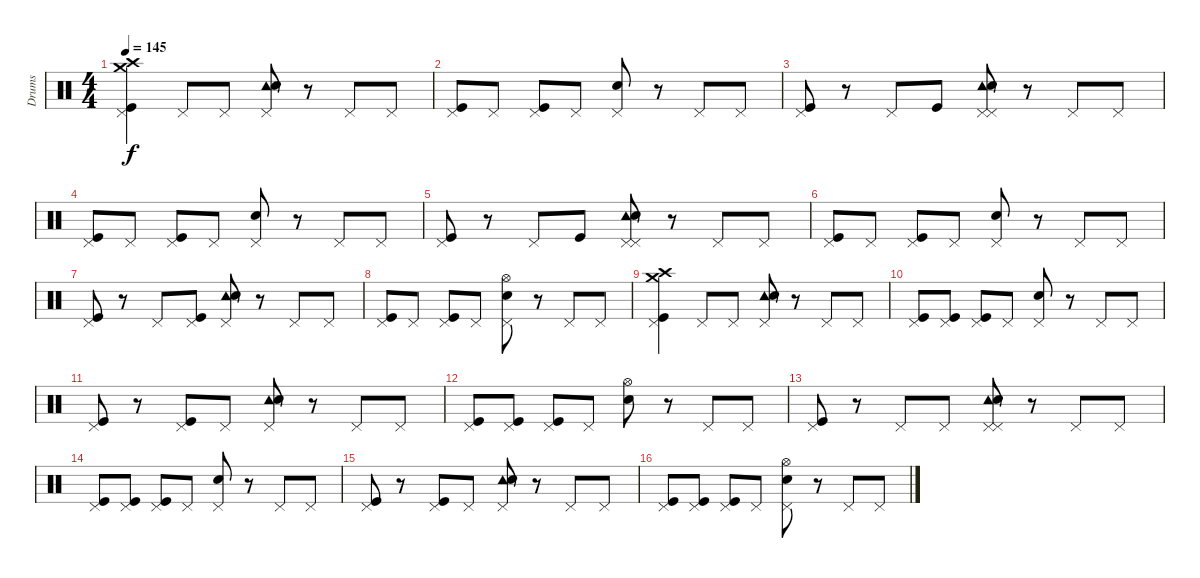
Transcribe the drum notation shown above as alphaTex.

\track ("Drums" "Drums") {instrument percussion}
\staff {score}
\articulation defaults
\ts (4 4)
\tempo 145
\clef neutral
\ks c
("Crash high (hit)" "Pedal Hi-Hat (hit)" "Crash medium (hit)" "Kick (hit)").4{dy f} "Pedal Hi-Hat (hit)".8 "Pedal Hi-Hat (hit)".8 ("Pedal Hi-Hat (hit)" "Tambourine (hit)" "Electric Snare (hit)").8 r.8 "Pedal Hi-Hat (hit)".8 "Pedal Hi-Hat (hit)".8 |
("Kick (hit)" "Pedal Hi-Hat (hit)").8 "Pedal Hi-Hat (hit)".8 ("Pedal Hi-Hat (hit)" "Kick (hit)").8 "Pedal Hi-Hat (hit)".8 ("Pedal Hi-Hat (hit)" "Electric Snare (hit)").8 r.8 "Pedal Hi-Hat (hit)".8 "Pedal Hi-Hat (hit)".8 |
("Pedal Hi-Hat (hit)" "Kick (hit)").8 r.8 "Pedal Hi-Hat (hit)".8 "Kick (hit)".8 ("Pedal Hi-Hat (hit)" "Pedal Hi-Hat (hit)" "Tambourine (hit)" "Electric Snare (hit)").8 r.8 "Pedal Hi-Hat (hit)".8 "Pedal Hi-Hat (hit)".8 |
("Kick (hit)" "Pedal Hi-Hat (hit)").8 "Pedal Hi-Hat (hit)".8 ("Pedal Hi-Hat (hit)" "Kick (hit)").8 "Pedal Hi-Hat (hit)".8 ("Pedal Hi-Hat (hit)" "Electric Snare (hit)").8 r.8 "Pedal Hi-Hat (hit)".8 "Pedal Hi-Hat (hit)".8 |
("Pedal Hi-Hat (hit)" "Kick (hit)").8 r.8 "Pedal Hi-Hat (hit)".8 "Kick (hit)".8 ("Pedal Hi-Hat (hit)" "Pedal Hi-Hat (hit)" "Tambourine (hit)" "Electric Snare (hit)").8 r.8 "Pedal Hi-Hat (hit)".8 "Pedal Hi-Hat (hit)".8 |
("Kick (hit)" "Pedal Hi-Hat (hit)").8 "Pedal Hi-Hat (hit)".8 ("Pedal Hi-Hat (hit)" "Kick (hit)").8 "Pedal Hi-Hat (hit)".8 ("Pedal Hi-Hat (hit)" "Electric Snare (hit)").8 r.8 "Pedal Hi-Hat (hit)".8 "Pedal Hi-Hat (hit)".8 |
("Pedal Hi-Hat (hit)" "Kick (hit)").8 r.8 "Pedal Hi-Hat (hit)".8 ("Kick (hit)" "Pedal Hi-Hat (hit)").8 ("Pedal Hi-Hat (hit)" "Tambourine (hit)" "Electric Snare (hit)").8 r.8 "Pedal Hi-Hat (hit)".8 "Pedal Hi-Hat (hit)".8 |
("Kick (hit)" "Pedal Hi-Hat (hit)").8 "Pedal Hi-Hat (hit)".8 ("Pedal Hi-Hat (hit)" "Kick (hit)").8 "Pedal Hi-Hat (hit)".8 ("Pedal Hi-Hat (hit)" "Hi-Hat (open)" "Electric Snare (hit)").8 r.8 "Pedal Hi-Hat (hit)".8 "Pedal Hi-Hat (hit)".8 |
("Crash high (hit)" "Pedal Hi-Hat (hit)" "Crash medium (hit)" "Kick (hit)").4 "Pedal Hi-Hat (hit)".8 "Pedal Hi-Hat (hit)".8 ("Pedal Hi-Hat (hit)" "Tambourine (hit)" "Electric Snare (hit)").8 r.8 "Pedal Hi-Hat (hit)".8 "Pedal Hi-Hat (hit)".8 |
("Kick (hit)" "Pedal Hi-Hat (hit)").8 ("Kick (hit)" "Pedal Hi-Hat (hit)").8 ("Pedal Hi-Hat (hit)" "Kick (hit)").8 "Pedal Hi-Hat (hit)".8 ("Pedal Hi-Hat (hit)" "Electric Snare (hit)").8 r.8 "Pedal Hi-Hat (hit)".8 "Pedal Hi-Hat (hit)".8 |
("Pedal Hi-Hat (hit)" "Kick (hit)").8 r.8 ("Kick (hit)" "Pedal Hi-Hat (hit)").8 "Pedal Hi-Hat (hit)".8 ("Pedal Hi-Hat (hit)" "Tambourine (hit)" "Electric Snare (hit)").8 r.8 "Pedal Hi-Hat (hit)".8 "Pedal Hi-Hat (hit)".8 |
("Kick (hit)" "Pedal Hi-Hat (hit)").8 ("Kick (hit)" "Pedal Hi-Hat (hit)").8 ("Pedal Hi-Hat (hit)" "Kick (hit)").8 "Pedal Hi-Hat (hit)".8 ("Hi-Hat (open)" "Electric Snare (hit)").8 r.8 "Pedal Hi-Hat (hit)".8 "Pedal Hi-Hat (hit)".8 |
("Pedal Hi-Hat (hit)" "Kick (hit)").8 r.8 "Pedal Hi-Hat (hit)".8 "Pedal Hi-Hat (hit)".8 ("Pedal Hi-Hat (hit)" "Pedal Hi-Hat (hit)" "Tambourine (hit)" "Electric Snare (hit)").8 r.8 "Pedal Hi-Hat (hit)".8 "Pedal Hi-Hat (hit)".8 |
("Kick (hit)" "Pedal Hi-Hat (hit)").8 ("Kick (hit)" "Pedal Hi-Hat (hit)").8 ("Pedal Hi-Hat (hit)" "Kick (hit)").8 "Pedal Hi-Hat (hit)".8 ("Pedal Hi-Hat (hit)" "Electric Snare (hit)").8 r.8 "Pedal Hi-Hat (hit)".8 "Pedal Hi-Hat (hit)".8 |
("Pedal Hi-Hat (hit)" "Kick (hit)").8 r.8 ("Kick (hit)" "Pedal Hi-Hat (hit)").8 "Pedal Hi-Hat (hit)".8 ("Pedal Hi-Hat (hit)" "Tambourine (hit)" "Electric Snare (hit)").8 r.8 "Pedal Hi-Hat (hit)".8 "Pedal Hi-Hat (hit)".8 |
("Kick (hit)" "Pedal Hi-Hat (hit)").8 ("Kick (hit)" "Pedal Hi-Hat (hit)").8 ("Pedal Hi-Hat (hit)" "Kick (hit)").8 "Pedal Hi-Hat (hit)".8 ("Pedal Hi-Hat (hit)" "Hi-Hat (open)" "Electric Snare (hit)").8 r.8 "Pedal Hi-Hat (hit)".8 "Pedal Hi-Hat (hit)".8
